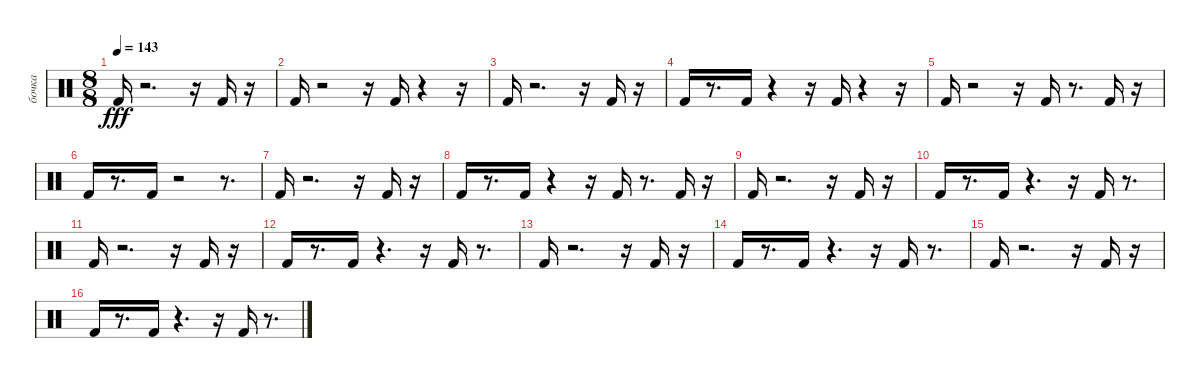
\track ("бочка" "бочка") {instrument percussion}
\staff {score}
\articulation defaults
\ts (8 8)
\tempo 143
\clef neutral
\ks c "Kick (hit) 2".16{dy fff}
r.2{d} r.16 "Kick (hit) 2".16 r.16 |
"Kick (hit) 2".16 r.2 r.16 "Kick (hit) 2".16 r.4 r.16 |
"Kick (hit) 2".16 r.2{d} r.16 "Kick (hit) 2".16 r.16 |
"Kick (hit) 2".16 r.8{d} "Kick (hit) 2".16 r.4 r.16 "Kick (hit) 2".16 r.4 r.16 |
"Kick (hit) 2".16 r.2 r.16 "Kick (hit) 2".16 r.8{d} "Kick (hit) 2".16 r.16 |
"Kick (hit) 2".16 r.8{d} "Kick (hit) 2".16 r.2 r.8{d} |
"Kick (hit) 2".16 r.2{d} r.16 "Kick (hit) 2".16 r.16 |
"Kick (hit) 2".16 r.8{d} "Kick (hit) 2".16 r.4 r.16 "Kick (hit) 2".16 r.8{d} "Kick (hit) 2".16 r.16 |
"Kick (hit) 2".16 r.2{d} r.16 "Kick (hit) 2".16 r.16 |
"Kick (hit) 2".16 r.8{d} "Kick (hit) 2".16 r.4{d} r.16 "Kick (hit) 2".16 r.8{d} |
"Kick (hit) 2".16 r.2{d} r.16 "Kick (hit) 2".16 r.16 |
"Kick (hit) 2".16 r.8{d} "Kick (hit) 2".16 r.4{d} r.16 "Kick (hit) 2".16 r.8{d} |
"Kick (hit) 2".16 r.2{d} r.16 "Kick (hit) 2".16 r.16 |
"Kick (hit) 2".16 r.8{d} "Kick (hit) 2".16 r.4{d} r.16 "Kick (hit) 2".16 r.8{d} |
"Kick (hit) 2".16 r.2{d} r.16 "Kick (hit) 2".16 r.16 |
"Kick (hit) 2".16 r.8{d} "Kick (hit) 2".16 r.4{d} r.16 "Kick (hit) 2".16 r.8{d}
